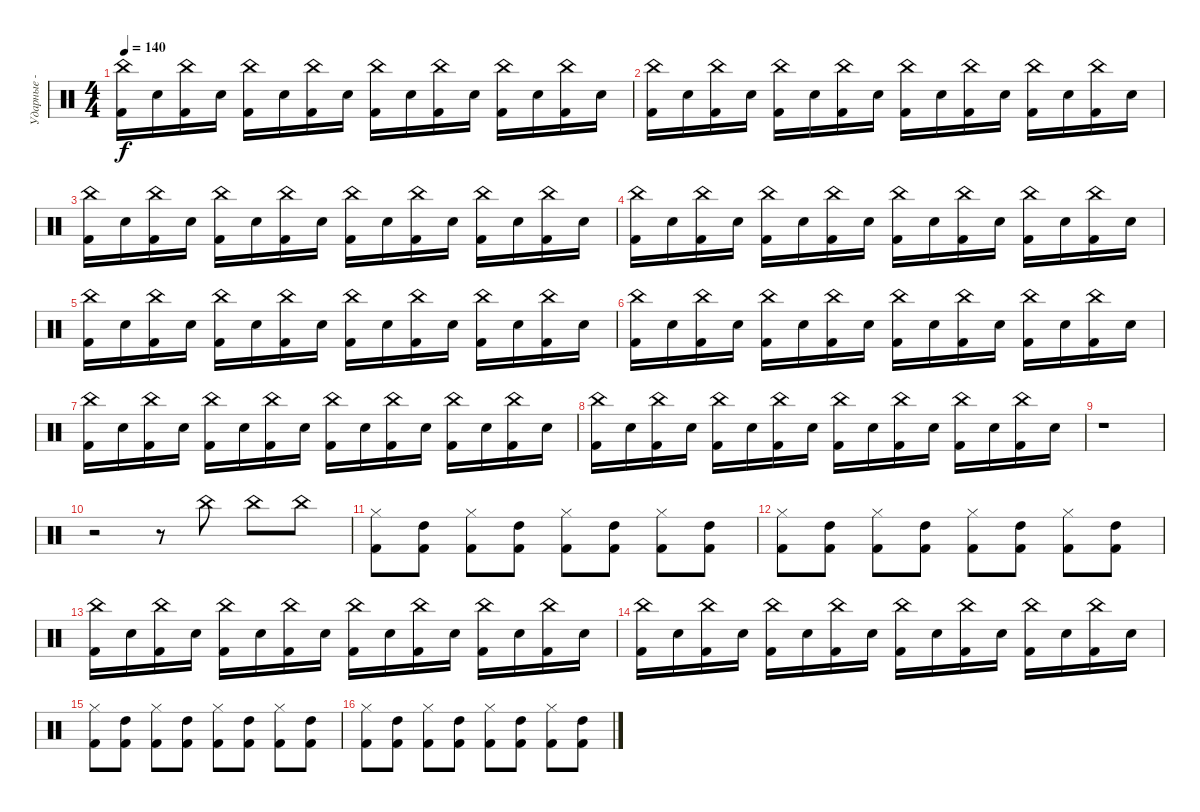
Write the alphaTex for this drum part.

\track ("Ударные - Ваня" "Ударные - ") {instrument percussion}
\staff {score}
\articulation defaults
\ts (4 4)
\tempo 140
\clef neutral
\ks c
("China (hit)" "Kick (hit) 2").16{dy f} "Snare (hit) 2".16 ("China (hit)" "Kick (hit) 2").16 "Snare (hit) 2".16 ("China (hit)" "Kick (hit) 2").16 "Snare (hit) 2".16 ("China (hit)" "Kick (hit) 2").16 "Snare (hit) 2".16 ("China (hit)" "Kick (hit) 2").16 "Snare (hit) 2".16 ("China (hit)" "Kick (hit) 2").16 "Snare (hit) 2".16 ("China (hit)" "Kick (hit) 2").16 "Snare (hit) 2".16 ("China (hit)" "Kick (hit) 2").16 "Snare (hit) 2".16 |
("China (hit)" "Kick (hit) 2").16 "Snare (hit) 2".16 ("China (hit)" "Kick (hit) 2").16 "Snare (hit) 2".16 ("China (hit)" "Kick (hit) 2").16 "Snare (hit) 2".16 ("China (hit)" "Kick (hit) 2").16 "Snare (hit) 2".16 ("China (hit)" "Kick (hit) 2").16 "Snare (hit) 2".16 ("China (hit)" "Kick (hit) 2").16 "Snare (hit) 2".16 ("China (hit)" "Kick (hit) 2").16 "Snare (hit) 2".16 ("China (hit)" "Kick (hit) 2").16 "Snare (hit) 2".16 |
("China (hit)" "Kick (hit) 2").16 "Snare (hit) 2".16 ("China (hit)" "Kick (hit) 2").16 "Snare (hit) 2".16 ("China (hit)" "Kick (hit) 2").16 "Snare (hit) 2".16 ("China (hit)" "Kick (hit) 2").16 "Snare (hit) 2".16 ("China (hit)" "Kick (hit) 2").16 "Snare (hit) 2".16 ("China (hit)" "Kick (hit) 2").16 "Snare (hit) 2".16 ("China (hit)" "Kick (hit) 2").16 "Snare (hit) 2".16 ("China (hit)" "Kick (hit) 2").16 "Snare (hit) 2".16 |
("China (hit)" "Kick (hit) 2").16 "Snare (hit) 2".16 ("China (hit)" "Kick (hit) 2").16 "Snare (hit) 2".16 ("China (hit)" "Kick (hit) 2").16 "Snare (hit) 2".16 ("China (hit)" "Kick (hit) 2").16 "Snare (hit) 2".16 ("China (hit)" "Kick (hit) 2").16 "Snare (hit) 2".16 ("China (hit)" "Kick (hit) 2").16 "Snare (hit) 2".16 ("China (hit)" "Kick (hit) 2").16 "Snare (hit) 2".16 ("China (hit)" "Kick (hit) 2").16 "Snare (hit) 2".16 |
("China (hit)" "Kick (hit) 2").16 "Snare (hit) 2".16 ("China (hit)" "Kick (hit) 2").16 "Snare (hit) 2".16 ("China (hit)" "Kick (hit) 2").16 "Snare (hit) 2".16 ("China (hit)" "Kick (hit) 2").16 "Snare (hit) 2".16 ("China (hit)" "Kick (hit) 2").16 "Snare (hit) 2".16 ("China (hit)" "Kick (hit) 2").16 "Snare (hit) 2".16 ("China (hit)" "Kick (hit) 2").16 "Snare (hit) 2".16 ("China (hit)" "Kick (hit) 2").16 "Snare (hit) 2".16 |
("China (hit)" "Kick (hit) 2").16 "Snare (hit) 2".16 ("China (hit)" "Kick (hit) 2").16 "Snare (hit) 2".16 ("China (hit)" "Kick (hit) 2").16 "Snare (hit) 2".16 ("China (hit)" "Kick (hit) 2").16 "Snare (hit) 2".16 ("China (hit)" "Kick (hit) 2").16 "Snare (hit) 2".16 ("China (hit)" "Kick (hit) 2").16 "Snare (hit) 2".16 ("China (hit)" "Kick (hit) 2").16 "Snare (hit) 2".16 ("China (hit)" "Kick (hit) 2").16 "Snare (hit) 2".16 |
("China (hit)" "Kick (hit) 2").16 "Snare (hit) 2".16 ("China (hit)" "Kick (hit) 2").16 "Snare (hit) 2".16 ("China (hit)" "Kick (hit) 2").16 "Snare (hit) 2".16 ("China (hit)" "Kick (hit) 2").16 "Snare (hit) 2".16 ("China (hit)" "Kick (hit) 2").16 "Snare (hit) 2".16 ("China (hit)" "Kick (hit) 2").16 "Snare (hit) 2".16 ("China (hit)" "Kick (hit) 2").16 "Snare (hit) 2".16 ("China (hit)" "Kick (hit) 2").16 "Snare (hit) 2".16 |
("China (hit)" "Kick (hit) 2").16 "Snare (hit) 2".16 ("China (hit)" "Kick (hit) 2").16 "Snare (hit) 2".16 ("China (hit)" "Kick (hit) 2").16 "Snare (hit) 2".16 ("China (hit)" "Kick (hit) 2").16 "Snare (hit) 2".16 ("China (hit)" "Kick (hit) 2").16 "Snare (hit) 2".16 ("China (hit)" "Kick (hit) 2").16 "Snare (hit) 2".16 ("China (hit)" "Kick (hit) 2").16 "Snare (hit) 2".16 ("China (hit)" "Kick (hit) 2").16 "Snare (hit) 2".16 |
r.1 |
r.2 r.8 "China (hit)".8 "China (hit)".8 "China (hit)".8 |
("Hi-Hat (closed)" "Kick (hit) 2").8 ("High Tom (hit)" "Kick (hit) 2").8 ("Hi-Hat (closed)" "Kick (hit) 2").8 ("High Tom (hit)" "Kick (hit) 2").8 ("Hi-Hat (closed)" "Kick (hit) 2").8 ("High Tom (hit)" "Kick (hit) 2").8 ("Hi-Hat (closed)" "Kick (hit) 2").8 ("High Tom (hit)" "Kick (hit) 2").8 |
("Hi-Hat (closed)" "Kick (hit) 2").8 ("High Tom (hit)" "Kick (hit) 2").8 ("Hi-Hat (closed)" "Kick (hit) 2").8 ("High Tom (hit)" "Kick (hit) 2").8 ("Hi-Hat (closed)" "Kick (hit) 2").8 ("High Tom (hit)" "Kick (hit) 2").8 ("Hi-Hat (closed)" "Kick (hit) 2").8 ("High Tom (hit)" "Kick (hit) 2").8 |
("China (hit)" "Kick (hit) 2").16 "Snare (hit) 2".16 ("China (hit)" "Kick (hit) 2").16 "Snare (hit) 2".16 ("China (hit)" "Kick (hit) 2").16 "Snare (hit) 2".16 ("China (hit)" "Kick (hit) 2").16 "Snare (hit) 2".16 ("China (hit)" "Kick (hit) 2").16 "Snare (hit) 2".16 ("China (hit)" "Kick (hit) 2").16 "Snare (hit) 2".16 ("China (hit)" "Kick (hit) 2").16 "Snare (hit) 2".16 ("China (hit)" "Kick (hit) 2").16 "Snare (hit) 2".16 |
("China (hit)" "Kick (hit) 2").16 "Snare (hit) 2".16 ("China (hit)" "Kick (hit) 2").16 "Snare (hit) 2".16 ("China (hit)" "Kick (hit) 2").16 "Snare (hit) 2".16 ("China (hit)" "Kick (hit) 2").16 "Snare (hit) 2".16 ("China (hit)" "Kick (hit) 2").16 "Snare (hit) 2".16 ("China (hit)" "Kick (hit) 2").16 "Snare (hit) 2".16 ("China (hit)" "Kick (hit) 2").16 "Snare (hit) 2".16 ("China (hit)" "Kick (hit) 2").16 "Snare (hit) 2".16 |
("Hi-Hat (closed)" "Kick (hit) 2").8 ("High Tom (hit)" "Kick (hit) 2").8 ("Hi-Hat (closed)" "Kick (hit) 2").8 ("High Tom (hit)" "Kick (hit) 2").8 ("Hi-Hat (closed)" "Kick (hit) 2").8 ("High Tom (hit)" "Kick (hit) 2").8 ("Hi-Hat (closed)" "Kick (hit) 2").8 ("High Tom (hit)" "Kick (hit) 2").8 |
("Hi-Hat (closed)" "Kick (hit) 2").8 ("High Tom (hit)" "Kick (hit) 2").8 ("Hi-Hat (closed)" "Kick (hit) 2").8 ("High Tom (hit)" "Kick (hit) 2").8 ("Hi-Hat (closed)" "Kick (hit) 2").8 ("High Tom (hit)" "Kick (hit) 2").8 ("Hi-Hat (closed)" "Kick (hit) 2").8 ("High Tom (hit)" "Kick (hit) 2").8
